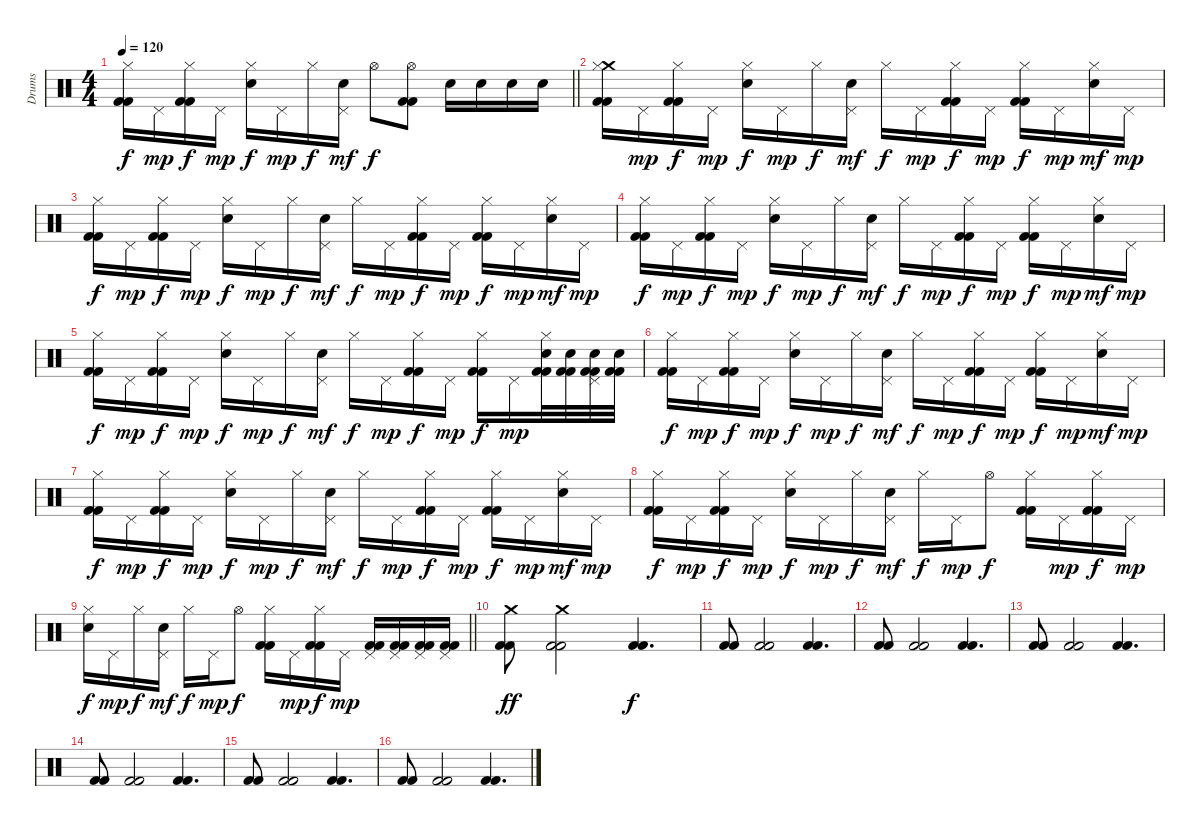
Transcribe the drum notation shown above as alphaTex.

\track ("Drums" "Drums") {instrument percussion}
\staff {score}
\articulation defaults
\ts (4 4)
\tempo 120
\clef neutral
\barLineRight lightlight
\ks c
("Hi-Hat (closed)" "Kick (hit) 2" "Kick (hit) 2").16{dy f} "Pedal Hi-Hat (hit)".16{dy mp} ("Hi-Hat (closed)" "Kick (hit) 2" "Kick (hit) 2").16{dy f} "Pedal Hi-Hat (hit)".16{dy mp} ("Hi-Hat (closed)" "Electric Snare (hit)").16{dy f} "Pedal Hi-Hat (hit)".16{dy mp} "Hi-Hat (closed)".16{dy f} ("Pedal Hi-Hat (hit)" "Electric Snare (hit)").16{dy mf} "Hi-Hat (open)".8{dy f} ("Hi-Hat (open)" "Kick (hit) 2" "Kick (hit) 2").8 "Electric Snare (hit)".16 "Electric Snare (hit)".16 "Electric Snare (hit)".16 "Electric Snare (hit)".16 |
("Crash medium (hit)" "Hi-Hat (closed)" "Kick (hit) 2" "Kick (hit) 2").16 "Pedal Hi-Hat (hit)".16{dy mp} ("Hi-Hat (closed)" "Kick (hit) 2" "Kick (hit) 2").16{dy f} "Pedal Hi-Hat (hit)".16{dy mp} ("Hi-Hat (closed)" "Electric Snare (hit)").16{dy f} "Pedal Hi-Hat (hit)".16{dy mp} "Hi-Hat (closed)".16{dy f} ("Pedal Hi-Hat (hit)" "Electric Snare (hit)").16{dy mf} "Hi-Hat (closed)".16{dy f} "Pedal Hi-Hat (hit)".16{dy mp} ("Hi-Hat (closed)" "Kick (hit) 2" "Kick (hit) 2").16{dy f} "Pedal Hi-Hat (hit)".16{dy mp} ("Hi-Hat (closed)" "Kick (hit) 2" "Kick (hit) 2").16{dy f} "Pedal Hi-Hat (hit)".16{dy mp} ("Hi-Hat (closed)" "Electric Snare (hit)").16{dy mf} "Pedal Hi-Hat (hit)".16{dy mp} |
("Hi-Hat (closed)" "Kick (hit) 2" "Kick (hit) 2").16{dy f} "Pedal Hi-Hat (hit)".16{dy mp} ("Hi-Hat (closed)" "Kick (hit) 2" "Kick (hit) 2").16{dy f} "Pedal Hi-Hat (hit)".16{dy mp} ("Hi-Hat (closed)" "Electric Snare (hit)").16{dy f} "Pedal Hi-Hat (hit)".16{dy mp} "Hi-Hat (closed)".16{dy f} ("Pedal Hi-Hat (hit)" "Electric Snare (hit)").16{dy mf} "Hi-Hat (closed)".16{dy f} "Pedal Hi-Hat (hit)".16{dy mp} ("Hi-Hat (closed)" "Kick (hit) 2" "Kick (hit) 2").16{dy f} "Pedal Hi-Hat (hit)".16{dy mp} ("Hi-Hat (closed)" "Kick (hit) 2" "Kick (hit) 2").16{dy f} "Pedal Hi-Hat (hit)".16{dy mp} ("Hi-Hat (closed)" "Electric Snare (hit)").16{dy mf} "Pedal Hi-Hat (hit)".16{dy mp} |
("Hi-Hat (closed)" "Kick (hit) 2" "Kick (hit) 2").16{dy f} "Pedal Hi-Hat (hit)".16{dy mp} ("Hi-Hat (closed)" "Kick (hit) 2" "Kick (hit) 2").16{dy f} "Pedal Hi-Hat (hit)".16{dy mp} ("Hi-Hat (closed)" "Electric Snare (hit)").16{dy f} "Pedal Hi-Hat (hit)".16{dy mp} "Hi-Hat (closed)".16{dy f} ("Pedal Hi-Hat (hit)" "Electric Snare (hit)").16{dy mf} "Hi-Hat (closed)".16{dy f} "Pedal Hi-Hat (hit)".16{dy mp} ("Hi-Hat (closed)" "Kick (hit) 2" "Kick (hit) 2").16{dy f} "Pedal Hi-Hat (hit)".16{dy mp} ("Hi-Hat (closed)" "Kick (hit) 2" "Kick (hit) 2").16{dy f} "Pedal Hi-Hat (hit)".16{dy mp} ("Hi-Hat (closed)" "Electric Snare (hit)").16{dy mf} "Pedal Hi-Hat (hit)".16{dy mp} |
("Hi-Hat (closed)" "Kick (hit) 2" "Kick (hit) 2").16{dy f} "Pedal Hi-Hat (hit)".16{dy mp} ("Hi-Hat (closed)" "Kick (hit) 2" "Kick (hit) 2").16{dy f} "Pedal Hi-Hat (hit)".16{dy mp} ("Hi-Hat (closed)" "Electric Snare (hit)").16{dy f} "Pedal Hi-Hat (hit)".16{dy mp} "Hi-Hat (closed)".16{dy f} ("Pedal Hi-Hat (hit)" "Electric Snare (hit)").16{dy mf} "Hi-Hat (closed)".16{dy f} "Pedal Hi-Hat (hit)".16{dy mp} ("Hi-Hat (closed)" "Kick (hit) 2" "Kick (hit) 2").16{dy f} "Pedal Hi-Hat (hit)".16{dy mp} ("Hi-Hat (closed)" "Kick (hit) 2" "Kick (hit) 2").16{dy f} "Pedal Hi-Hat (hit)".16{dy mp} ("Hi-Hat (closed)" "Electric Snare (hit)" "Kick (hit) 2" "Kick (hit) 2").32 ("Electric Snare (hit)" "Kick (hit) 2" "Kick (hit) 2").32 ("Pedal Hi-Hat (hit)" "Electric Snare (hit)" "Kick (hit) 2" "Kick (hit) 2").32 ("Electric Snare (hit)" "Kick (hit) 2" "Kick (hit) 2").32 |
("Hi-Hat (closed)" "Kick (hit) 2" "Kick (hit) 2").16{dy f} "Pedal Hi-Hat (hit)".16{dy mp} ("Hi-Hat (closed)" "Kick (hit) 2" "Kick (hit) 2").16{dy f} "Pedal Hi-Hat (hit)".16{dy mp} ("Hi-Hat (closed)" "Electric Snare (hit)").16{dy f} "Pedal Hi-Hat (hit)".16{dy mp} "Hi-Hat (closed)".16{dy f} ("Pedal Hi-Hat (hit)" "Electric Snare (hit)").16{dy mf} "Hi-Hat (closed)".16{dy f} "Pedal Hi-Hat (hit)".16{dy mp} ("Hi-Hat (closed)" "Kick (hit) 2" "Kick (hit) 2").16{dy f} "Pedal Hi-Hat (hit)".16{dy mp} ("Hi-Hat (closed)" "Kick (hit) 2" "Kick (hit) 2").16{dy f} "Pedal Hi-Hat (hit)".16{dy mp} ("Hi-Hat (closed)" "Electric Snare (hit)").16{dy mf} "Pedal Hi-Hat (hit)".16{dy mp} |
("Hi-Hat (closed)" "Kick (hit) 2" "Kick (hit) 2").16{dy f} "Pedal Hi-Hat (hit)".16{dy mp} ("Hi-Hat (closed)" "Kick (hit) 2" "Kick (hit) 2").16{dy f} "Pedal Hi-Hat (hit)".16{dy mp} ("Hi-Hat (closed)" "Electric Snare (hit)").16{dy f} "Pedal Hi-Hat (hit)".16{dy mp} "Hi-Hat (closed)".16{dy f} ("Pedal Hi-Hat (hit)" "Electric Snare (hit)").16{dy mf} "Hi-Hat (closed)".16{dy f} "Pedal Hi-Hat (hit)".16{dy mp} ("Hi-Hat (closed)" "Kick (hit) 2" "Kick (hit) 2").16{dy f} "Pedal Hi-Hat (hit)".16{dy mp} ("Hi-Hat (closed)" "Kick (hit) 2" "Kick (hit) 2").16{dy f} "Pedal Hi-Hat (hit)".16{dy mp} ("Hi-Hat (closed)" "Electric Snare (hit)").16{dy mf} "Pedal Hi-Hat (hit)".16{dy mp} |
("Hi-Hat (closed)" "Kick (hit) 2" "Kick (hit) 2").16{dy f} "Pedal Hi-Hat (hit)".16{dy mp} ("Hi-Hat (closed)" "Kick (hit) 2" "Kick (hit) 2").16{dy f} "Pedal Hi-Hat (hit)".16{dy mp} ("Hi-Hat (closed)" "Electric Snare (hit)").16{dy f} "Pedal Hi-Hat (hit)".16{dy mp} "Hi-Hat (closed)".16{dy f} ("Pedal Hi-Hat (hit)" "Electric Snare (hit)").16{dy mf} "Hi-Hat (closed)".16{dy f} "Pedal Hi-Hat (hit)".16{dy mp} "Hi-Hat (open)".8{dy f} ("Hi-Hat (closed)" "Kick (hit) 2" "Kick (hit) 2").16 "Pedal Hi-Hat (hit)".16{dy mp} ("Hi-Hat (closed)" "Kick (hit) 2" "Kick (hit) 2").16{dy f} "Pedal Hi-Hat (hit)".16{dy mp} |
\barLineRight lightlight
("Hi-Hat (closed)" "Electric Snare (hit)").16{dy f} "Pedal Hi-Hat (hit)".16{dy mp} "Hi-Hat (closed)".16{dy f} ("Pedal Hi-Hat (hit)" "Electric Snare (hit)").16{dy mf} "Hi-Hat (closed)".16{dy f} "Pedal Hi-Hat (hit)".16{dy mp} "Hi-Hat (open)".8{dy f} ("Hi-Hat (closed)" "Kick (hit) 2" "Kick (hit) 2").16 "Pedal Hi-Hat (hit)".16{dy mp} ("Hi-Hat (closed)" "Kick (hit) 2" "Kick (hit) 2").16{dy f} "Pedal Hi-Hat (hit)".16{dy mp} ("Pedal Hi-Hat (hit)" "Kick (hit) 2" "Kick (hit) 2").16 ("Pedal Hi-Hat (hit)" "Kick (hit) 2" "Kick (hit) 2").16 ("Pedal Hi-Hat (hit)" "Kick (hit) 2" "Kick (hit) 2").16 ("Pedal Hi-Hat (hit)" "Kick (hit) 2" "Kick (hit) 2").16 |
("Crash medium (hit)" "Kick (hit) 2" "Kick (hit) 2").8{dy ff} ("Crash medium (hit)" "Kick (hit) 2" "Kick (hit) 2").2 ("Kick (hit) 2" "Kick (hit) 2").4{d dy f} |
("Kick (hit) 2" "Kick (hit) 2").8 ("Kick (hit) 2" "Kick (hit) 2").2 ("Kick (hit) 2" "Kick (hit) 2").4{d} |
("Kick (hit) 2" "Kick (hit) 2").8 ("Kick (hit) 2" "Kick (hit) 2").2 ("Kick (hit) 2" "Kick (hit) 2").4{d} |
("Kick (hit) 2" "Kick (hit) 2").8 ("Kick (hit) 2" "Kick (hit) 2").2 ("Kick (hit) 2" "Kick (hit) 2").4{d} |
("Kick (hit) 2" "Kick (hit) 2").8 ("Kick (hit) 2" "Kick (hit) 2").2 ("Kick (hit) 2" "Kick (hit) 2").4{d} |
("Kick (hit) 2" "Kick (hit) 2").8 ("Kick (hit) 2" "Kick (hit) 2").2 ("Kick (hit) 2" "Kick (hit) 2").4{d} |
("Kick (hit) 2" "Kick (hit) 2").8 ("Kick (hit) 2" "Kick (hit) 2").2 ("Kick (hit) 2" "Kick (hit) 2").4{d}
